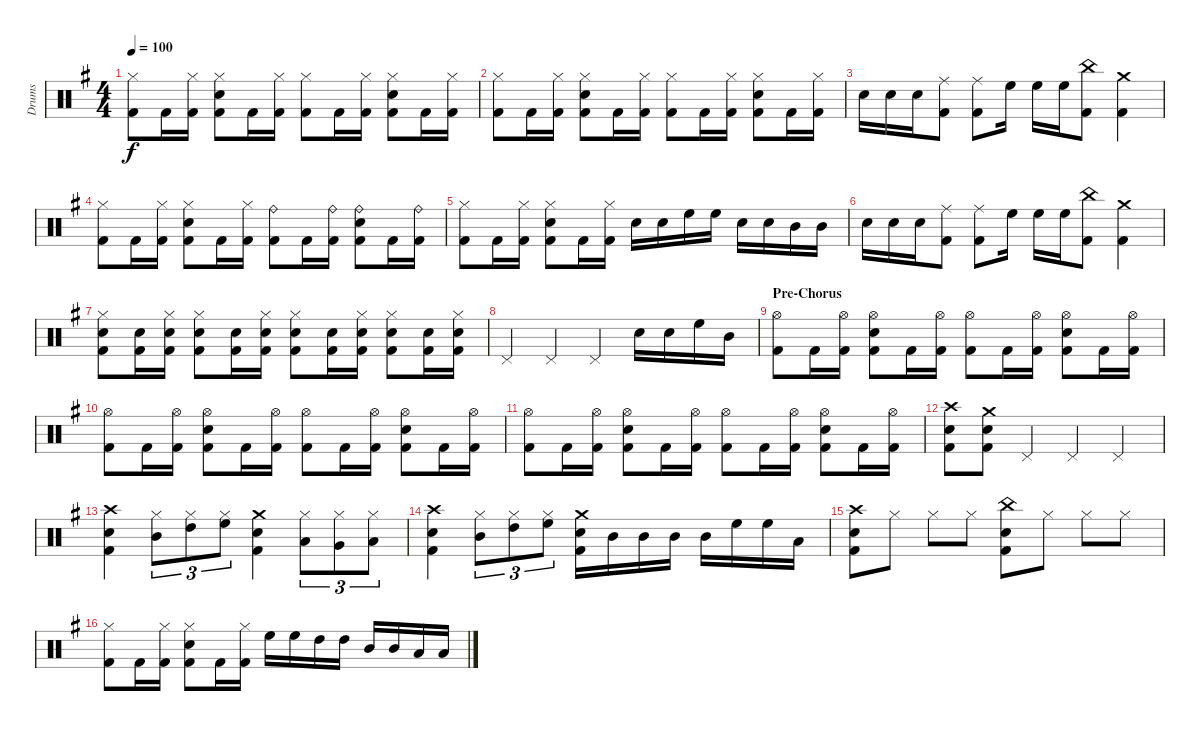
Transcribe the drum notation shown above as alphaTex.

\track ("Drums" "Drums") {instrument percussion}
\staff {score}
\articulation defaults
\ts (4 4)
\tempo 100
\clef neutral
\ks eminor
("Hi-Hat (closed)" "Kick (hit) 2").8{dy f} "Kick (hit) 2".16 ("Hi-Hat (closed)" "Kick (hit) 2").16 ("Hi-Hat (closed)" "Kick (hit) 2" "Snare (hit) 2").8 "Kick (hit) 2".16 ("Hi-Hat (closed)" "Kick (hit) 2").16 ("Hi-Hat (closed)" "Kick (hit) 2").8 "Kick (hit) 2".16 ("Hi-Hat (closed)" "Kick (hit) 2").16 ("Hi-Hat (closed)" "Kick (hit) 2" "Snare (hit) 2").8 "Kick (hit) 2".16 ("Hi-Hat (closed)" "Kick (hit) 2").16 |
("Hi-Hat (closed)" "Kick (hit) 2").8 "Kick (hit) 2".16 ("Hi-Hat (closed)" "Kick (hit) 2").16 ("Hi-Hat (closed)" "Kick (hit) 2" "Snare (hit) 2").8 "Kick (hit) 2".16 ("Hi-Hat (closed)" "Kick (hit) 2").16 ("Hi-Hat (closed)" "Kick (hit) 2").8 "Kick (hit) 2".16 ("Hi-Hat (closed)" "Kick (hit) 2").16 ("Hi-Hat (closed)" "Kick (hit) 2" "Snare (hit) 2").8 "Kick (hit) 2".16 ("Hi-Hat (closed)" "Kick (hit) 2").16 |
"Snare (hit) 2".16 "Snare (hit) 2".16 "Snare (hit) 2".16 ("Ride (middle)" "Kick (hit) 2").8 ("Ride (middle)" "Kick (hit) 2").8 "High Floor Tom (hit)".16 "High Floor Tom (hit)".16 "High Floor Tom (hit)".16 ("China (hit)" "Kick (hit) 2").8 ("Crash medium (hit)" "Kick (hit) 2").4 |
("Hi-Hat (closed)" "Kick (hit) 2").8 "Kick (hit) 2".16 ("Hi-Hat (closed)" "Kick (hit) 2").16 ("Hi-Hat (closed)" "Kick (hit) 2" "Snare (hit) 2").8 "Kick (hit) 2".16 ("Hi-Hat (closed)" "Kick (hit) 2").16 ("Ride (bell)" "Kick (hit) 2").8 "Kick (hit) 2".16 ("Ride (bell)" "Kick (hit) 2").16 ("Ride (bell)" "Kick (hit) 2" "Snare (hit) 2").8 "Kick (hit) 2".16 ("Ride (bell)" "Kick (hit) 2").16 |
("Hi-Hat (closed)" "Kick (hit) 2").8 "Kick (hit) 2".16 ("Hi-Hat (closed)" "Kick (hit) 2").16 ("Hi-Hat (closed)" "Kick (hit) 2" "Snare (hit) 2").8 "Kick (hit) 2".16 ("Hi-Hat (closed)" "Kick (hit) 2").16 "Snare (hit) 2".16 "Snare (hit) 2".16 "High Floor Tom (hit)".16 "High Floor Tom (hit)".16 "Snare (hit) 2".16 "Snare (hit) 2".16 "Mid Tom (hit)".16 "Mid Tom (hit)".16 |
"Snare (hit) 2".16 "Snare (hit) 2".16 "Snare (hit) 2".16 ("Ride (middle)" "Kick (hit) 2").8 ("Ride (middle)" "Kick (hit) 2").8 "High Floor Tom (hit)".16 "High Floor Tom (hit)".16 "High Floor Tom (hit)".16 ("China (hit)" "Kick (hit) 2").8 ("Crash medium (hit)" "Kick (hit) 2").4 |
("Hi-Hat (closed)" "Kick (hit) 2" "Snare (hit) 2").8 ("Kick (hit) 2" "Snare (hit) 2").16 ("Hi-Hat (closed)" "Kick (hit) 2" "Snare (hit) 2").16 ("Hi-Hat (closed)" "Kick (hit) 2" "Snare (hit) 2").8 ("Kick (hit) 2" "Snare (hit) 2").16 ("Hi-Hat (closed)" "Kick (hit) 2" "Snare (hit) 2").16 ("Hi-Hat (closed)" "Kick (hit) 2" "Snare (hit) 2").8 ("Kick (hit) 2" "Snare (hit) 2").16 ("Hi-Hat (closed)" "Kick (hit) 2" "Snare (hit) 2").16 ("Hi-Hat (closed)" "Kick (hit) 2" "Snare (hit) 2").8 ("Kick (hit) 2" "Snare (hit) 2").16 ("Hi-Hat (closed)" "Kick (hit) 2" "Snare (hit) 2").16 |
"Pedal Hi-Hat (hit)".4 "Pedal Hi-Hat (hit)".4 "Pedal Hi-Hat (hit)".4 "Snare (hit) 2".16 "Snare (hit) 2".16 "High Floor Tom (hit)".16 "Mid Tom (hit)".16 |
\section ("" "Pre-Chorus")
("Hi-Hat (open)" "Kick (hit) 2").8 "Kick (hit) 2".16 ("Hi-Hat (open)" "Kick (hit) 2").16 ("Hi-Hat (open)" "Kick (hit) 2" "Snare (hit) 2").8 "Kick (hit) 2".16 ("Hi-Hat (open)" "Kick (hit) 2").16 ("Hi-Hat (open)" "Kick (hit) 2").8 "Kick (hit) 2".16 ("Hi-Hat (open)" "Kick (hit) 2").16 ("Hi-Hat (open)" "Kick (hit) 2" "Snare (hit) 2").8 "Kick (hit) 2".16 ("Hi-Hat (open)" "Kick (hit) 2").16 |
("Hi-Hat (open)" "Kick (hit) 2").8 "Kick (hit) 2".16 ("Hi-Hat (open)" "Kick (hit) 2").16 ("Hi-Hat (open)" "Kick (hit) 2" "Snare (hit) 2").8 "Kick (hit) 2".16 ("Hi-Hat (open)" "Kick (hit) 2").16 ("Hi-Hat (open)" "Kick (hit) 2").8 "Kick (hit) 2".16 ("Hi-Hat (open)" "Kick (hit) 2").16 ("Hi-Hat (open)" "Kick (hit) 2" "Snare (hit) 2").8 "Kick (hit) 2".16 ("Hi-Hat (open)" "Kick (hit) 2").16 |
("Hi-Hat (open)" "Kick (hit) 2").8 "Kick (hit) 2".16 ("Hi-Hat (open)" "Kick (hit) 2").16 ("Hi-Hat (open)" "Kick (hit) 2" "Snare (hit) 2").8 "Kick (hit) 2".16 ("Hi-Hat (open)" "Kick (hit) 2").16 ("Hi-Hat (open)" "Kick (hit) 2").8 "Kick (hit) 2".16 ("Hi-Hat (open)" "Kick (hit) 2").16 ("Hi-Hat (open)" "Kick (hit) 2" "Snare (hit) 2").8 "Kick (hit) 2".16 ("Hi-Hat (open)" "Kick (hit) 2").16 |
("Crash high (hit)" "Snare (hit) 2" "Kick (hit) 2").8 ("Crash medium (hit)" "Snare (hit) 2" "Kick (hit) 2").8 "Pedal Hi-Hat (hit)".4 "Pedal Hi-Hat (hit)".4 "Pedal Hi-Hat (hit)".4 |
("Crash high (hit)" "Snare (hit) 2" "Kick (hit) 2").4 ("Hi-Hat (closed)" "Mid Tom (hit)").8{tu (3 2)} ("Hi-Hat (closed)" "High Tom (hit)").8{tu (3 2)} ("Hi-Hat (closed)" "High Floor Tom (hit)").8{tu (3 2)} ("Crash medium (hit)" "Snare (hit) 2" "Kick (hit) 2").4 ("Hi-Hat (closed)" "Low Floor Tom (hit)").8{tu (3 2)} ("Hi-Hat (closed)" "Very Low Tom (hit)").8{tu (3 2)} ("Hi-Hat (closed)" "Low Tom (hit)").8{tu (3 2)} |
("Crash high (hit)" "Snare (hit) 2" "Kick (hit) 2").4 ("Hi-Hat (closed)" "Mid Tom (hit)").8{tu (3 2)} ("Hi-Hat (closed)" "High Tom (hit)").8{tu (3 2)} ("Hi-Hat (closed)" "High Floor Tom (hit)").8{tu (3 2)} ("Crash medium (hit)" "Snare (hit) 2" "Kick (hit) 2").16 "Mid Tom (hit)".16 "Mid Tom (hit)".16 "Mid Tom (hit)".16 "Mid Tom (hit)".16 "High Floor Tom (hit)".16 "High Floor Tom (hit)".16 "Low Tom (hit)".16 |
("Crash high (hit)" "Snare (hit) 2" "Kick (hit) 2").8 "Hi-Hat (closed)".8 "Hi-Hat (closed)".8 "Hi-Hat (closed)".8 ("China (hit)" "Snare (hit) 2" "Kick (hit) 2").8 "Hi-Hat (closed)".8 "Hi-Hat (closed)".8 "Hi-Hat (closed)".8 |
("Hi-Hat (closed)" "Kick (hit) 2").8 "Kick (hit) 2".16 ("Hi-Hat (closed)" "Kick (hit) 2").16 ("Hi-Hat (closed)" "Kick (hit) 2" "Snare (hit) 2").8 "Kick (hit) 2".16 ("Hi-Hat (closed)" "Kick (hit) 2").16 "High Floor Tom (hit)".16 "High Floor Tom (hit)".16 "High Tom (hit)".16 "High Tom (hit)".16 "Mid Tom (hit)".16 "Mid Tom (hit)".16 "Low Tom (hit)".16 "Low Tom (hit)".16
